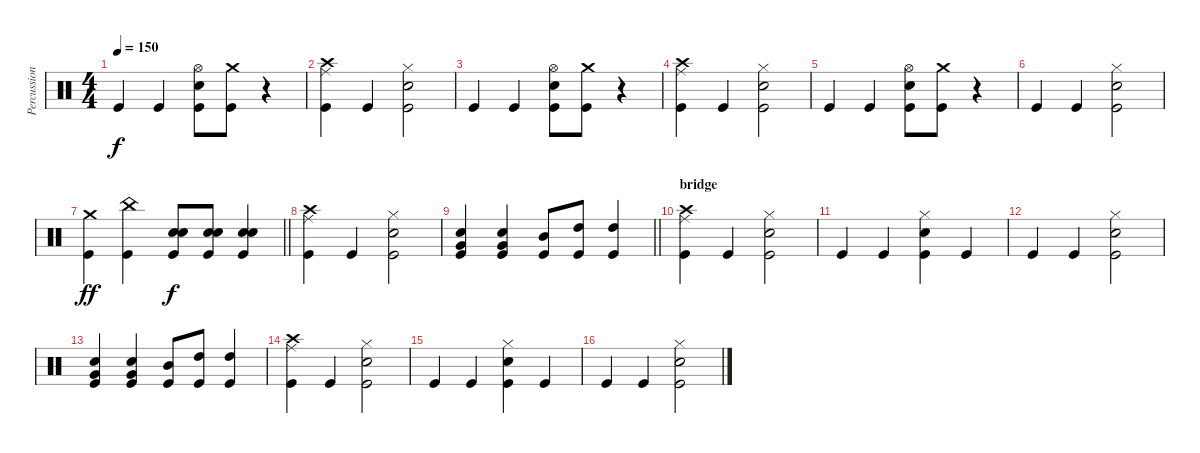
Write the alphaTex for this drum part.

\track ("Percussion" "Percussion") {instrument percussion}
\staff {score}
\articulation defaults
\ts (4 4)
\tempo 150
\clef neutral
\ks c "Kick (hit)".4{dy f} "Kick (hit)".4
("Hi-Hat (open)" "Electric Snare (hit)" "Kick (hit)").8 ("Crash medium (hit)" "Kick (hit)").8 r.4 |
("Crash high (hit)" "Ride (middle)" "Kick (hit)").4 "Kick (hit)".4 ("Hi-Hat (closed)" "Electric Snare (hit)" "Kick (hit)").2 |
"Kick (hit)".4 "Kick (hit)".4 ("Hi-Hat (open)" "Electric Snare (hit)" "Kick (hit)").8 ("Crash medium (hit)" "Kick (hit)").8 r.4 |
("Crash high (hit)" "Ride (middle)" "Kick (hit)").4 "Kick (hit)".4 ("Hi-Hat (closed)" "Electric Snare (hit)" "Kick (hit)").2 |
"Kick (hit)".4 "Kick (hit)".4 ("Hi-Hat (open)" "Electric Snare (hit)" "Kick (hit)").8 ("Crash medium (hit)" "Kick (hit)").8 r.4 |
"Kick (hit)".4 "Kick (hit)".4 ("Hi-Hat (closed)" "Electric Snare (hit)" "Kick (hit)").2 |
\barLineRight lightlight
("Crash medium (hit)" "Kick (hit)").4{dy ff} ("China (hit)" "Kick (hit)").4 ("Electric Snare (hit)" "Electric Snare (hit)" "Kick (hit)").8{dy f} ("Electric Snare (hit)" "Electric Snare (hit)" "Kick (hit)").8 ("Electric Snare (hit)" "Electric Snare (hit)" "Kick (hit)").4 |
("Crash high (hit)" "Ride (middle)" "Kick (hit)").4 "Kick (hit)".4 ("Hi-Hat (closed)" "Electric Snare (hit)" "Kick (hit)").2 |
\barLineRight lightlight
("Electric Snare (hit)" "Very Low Tom (hit)" "Kick (hit)").4 ("Electric Snare (hit)" "Very Low Tom (hit)" "Kick (hit)").4 ("Mid Tom (hit)" "Kick (hit)").8 ("High Tom (hit)" "Kick (hit)").8 ("High Tom (hit)" "Kick (hit)").4 |
\section ("" "bridge")
("Crash high (hit)" "Ride (middle)" "Kick (hit)").4 "Kick (hit)".4 ("Hi-Hat (closed)" "Electric Snare (hit)" "Kick (hit)").2 |
"Kick (hit)".4 "Kick (hit)".4 ("Hi-Hat (closed)" "Electric Snare (hit)" "Kick (hit)").4 "Kick (hit)".4 |
"Kick (hit)".4 "Kick (hit)".4 ("Hi-Hat (closed)" "Electric Snare (hit)" "Kick (hit)").2 |
("Electric Snare (hit)" "Very Low Tom (hit)" "Kick (hit)").4 ("Electric Snare (hit)" "Very Low Tom (hit)" "Kick (hit)").4 ("Mid Tom (hit)" "Kick (hit)").8 ("High Tom (hit)" "Kick (hit)").8 ("High Tom (hit)" "Kick (hit)").4 |
("Crash high (hit)" "Ride (middle)" "Kick (hit)").4 "Kick (hit)".4 ("Hi-Hat (closed)" "Electric Snare (hit)" "Kick (hit)").2 |
"Kick (hit)".4 "Kick (hit)".4 ("Hi-Hat (closed)" "Electric Snare (hit)" "Kick (hit)").4 "Kick (hit)".4 |
"Kick (hit)".4 "Kick (hit)".4 ("Hi-Hat (closed)" "Electric Snare (hit)" "Kick (hit)").2
